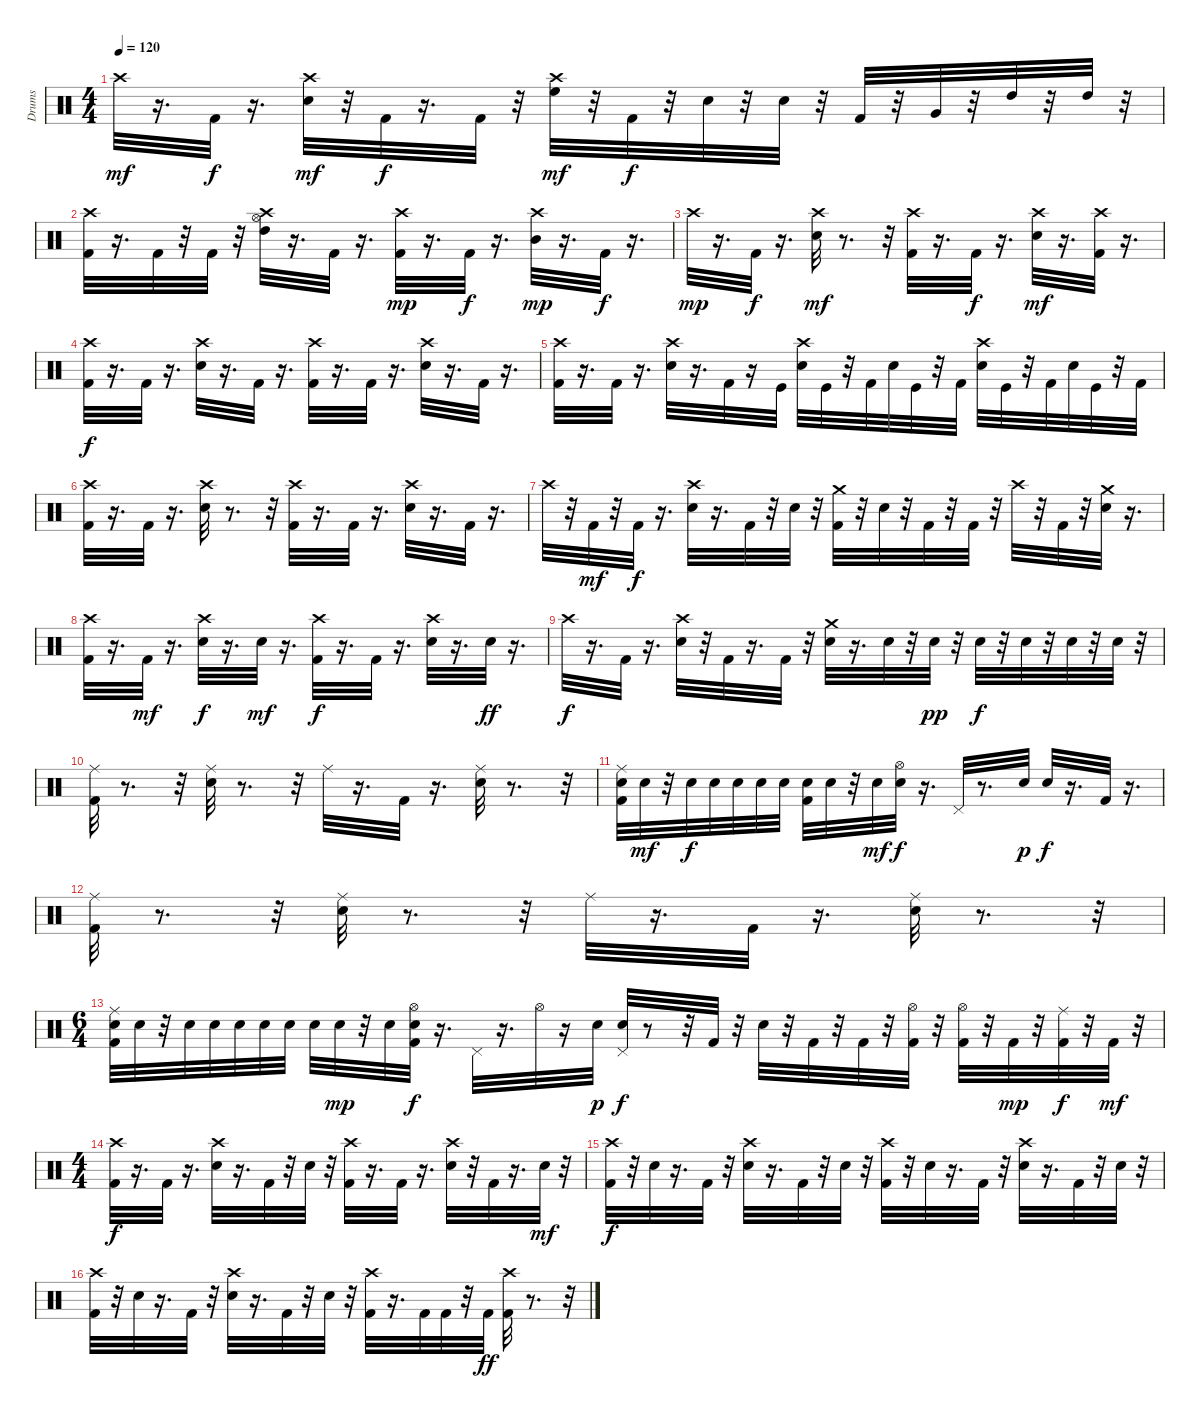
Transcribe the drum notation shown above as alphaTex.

\track ("Drums" "Drums") {instrument percussion}
\staff {score}
\articulation defaults
\ts (4 4)
\tempo 120
\clef neutral
\ks c "Crash high (hit)".32{dy mf}
r.16{d} "Kick (hit) 2".32{dy f} r.16{d} ("Snare (hit) 2" "Crash high (hit)").32{dy mf} r.32 "Kick (hit) 2".32{dy f} r.16{d} "Kick (hit) 2".32 r.32 ("High Floor Tom (hit)" "Crash high (hit)").32{dy mf} r.32 "Kick (hit) 2".32{dy f} r.32 "Snare (hit) 2".32 r.32 "Snare (hit) 2".32 r.32 "Kick (hit) 2".32 r.32 "Very Low Tom (hit)".32 r.32 "High Tom (hit)".32 r.32 "High Tom (hit)".32 r.32 |
("Crash high (hit)" "Kick (hit) 2").32 r.16{d} "Kick (hit) 2".32 r.32 "Kick (hit) 2".32 r.32 ("Crash high (hit)" "Hi-Hat (open)" "High Tom (hit)").32 r.16{d} "Kick (hit) 2".32 r.16{d} ("Crash high (hit)" "Kick (hit) 2").32{dy mp} r.16{d} "Kick (hit) 2".32{dy f} r.16{d} ("Crash high (hit)" "Mid Tom (hit)").32{dy mp} r.16{d} "Kick (hit) 2".32{dy f} r.16{d} |
"Crash high (hit)".32{dy mp} r.16{d} "Kick (hit) 2".32{dy f} r.16{d} ("Crash high (hit)" "Snare (hit) 2").32{dy mf} r.8{d} r.32 ("Crash high (hit)" "Kick (hit) 2").32 r.16{d} "Kick (hit) 2".32{dy f} r.16{d} ("Crash high (hit)" "Snare (hit) 2").32{dy mf} r.16{d} ("Crash high (hit)" "Kick (hit) 2").32 r.16{d} |
("Crash high (hit)" "Kick (hit) 2").32{dy f} r.16{d} "Kick (hit) 2".32 r.16{d} ("Crash high (hit)" "Snare (hit) 2").32 r.16{d} "Kick (hit) 2".32 r.16{d} ("Crash high (hit)" "Kick (hit) 2").32 r.16{d} "Kick (hit) 2".32 r.16{d} ("Crash high (hit)" "Snare (hit) 2").32 r.16{d} "Kick (hit) 2".32 r.16{d} |
("Crash high (hit)" "Kick (hit) 2").32 r.16{d} "Kick (hit) 2".32 r.16{d} ("Crash high (hit)" "Snare (hit) 2").32 r.16{d} "Kick (hit) 2".32 r.16 "Kick (hit)".32 ("Crash high (hit)" "Snare (hit) 2").32 "Kick (hit)".32 r.32 "Kick (hit) 2".32 "Snare (hit) 2".32 "Kick (hit)".32 r.32 "Kick (hit) 2".32 ("Crash high (hit)" "Snare (hit) 2").32 "Kick (hit)".32 r.32 "Kick (hit) 2".32 "Snare (hit) 2".32 "Kick (hit)".32 r.32 "Kick (hit) 2".32 |
("Crash high (hit)" "Kick (hit) 2").32 r.16{d} "Kick (hit) 2".32 r.16{d} ("Crash high (hit)" "Snare (hit) 2").32 r.8{d} r.32 ("Crash high (hit)" "Kick (hit) 2").32 r.16{d} "Kick (hit) 2".32 r.16{d} ("Crash high (hit)" "Snare (hit) 2").32 r.16{d} "Kick (hit) 2".32 r.16{d} |
"Crash high (hit)".32 r.32 "Kick (hit) 2".32{dy mf} r.32 "Kick (hit) 2".32{dy f} r.16{d} ("Crash high (hit)" "Snare (hit) 2").32 r.16{d} "Kick (hit) 2".32 r.32 "Snare (hit) 2".32 r.32 ("Crash medium (hit)" "Kick (hit) 2").32 r.32 "Snare (hit) 2".32 r.32 "Kick (hit) 2".32 r.32 "Kick (hit) 2".32 r.32 "Crash high (hit)".32 r.32 "Kick (hit) 2".32 r.32 ("Crash medium (hit)" "Snare (hit) 2").32 r.16{d} |
("Crash high (hit)" "Kick (hit) 2").32 r.16{d} "Kick (hit) 2".32{dy mf} r.16{d} ("Crash high (hit)" "Snare (hit) 2").32{dy f} r.16{d} "Snare (hit) 2".32{dy mf} r.16{d} ("Crash high (hit)" "Kick (hit) 2").32{dy f} r.16{d} "Kick (hit) 2".32 r.16{d} ("Crash high (hit)" "Snare (hit) 2").32 r.16{d} "Snare (hit) 2".32{dy ff} r.16{d} |
"Crash high (hit)".32{dy f} r.16{d} "Kick (hit) 2".32 r.16{d} ("Crash high (hit)" "Snare (hit) 2").32 r.32 "Kick (hit) 2".32 r.16{d} "Kick (hit) 2".32 r.32 ("Crash medium (hit)" "Snare (hit) 2").32 r.16{d} "Snare (hit) 2".32 r.32 "Snare (hit) 2".32{dy pp} r.32 "Snare (hit) 2".32{dy f} r.32 "Snare (hit) 2".32 r.32 "Snare (hit) 2".32 r.32 "Snare (hit) 2".32 r.32 |
("Ride (middle)" "Kick (hit) 2").32 r.8{d} r.32 ("Ride (middle)" "Snare (hit) 2").32 r.8{d} r.32 "Ride (middle)".32 r.16{d} "Kick (hit) 2".32 r.16{d} ("Ride (middle)" "Snare (hit) 2").32 r.8{d} r.32 |
("Ride (middle)" "Kick (hit) 2" "Snare (hit) 2").32 "Snare (hit) 2".32{dy mf} r.32 "Snare (hit) 2".32{dy f} "Snare (hit) 2".32 "Snare (hit) 2".32 "Snare (hit) 2".32 "Snare (hit) 2".32 ("Snare (hit) 2" "Kick (hit) 2").32 "Snare (hit) 2".32 r.32 "Snare (hit) 2".32{dy mf} ("Hi-Hat (open)" "Snare (hit) 2").32{dy f} r.16{d} "Pedal Hi-Hat (hit)".32 r.8{d} "Snare (hit) 2".32{dy p} "Snare (hit) 2".32{dy f} r.16{d} "Kick (hit) 2".32 r.16{d} |
("Ride (middle)" "Kick (hit) 2").32 r.8{d} r.32 ("Ride (middle)" "Snare (hit) 2").32 r.8{d} r.32 "Ride (middle)".32 r.16{d} "Kick (hit) 2".32 r.16{d} ("Ride (middle)" "Snare (hit) 2").32 r.8{d} r.32 |
\ts (6 4)
("Ride (middle)" "Kick (hit) 2" "Snare (hit) 2").32 "Snare (hit) 2".32 r.32 "Snare (hit) 2".32 "Snare (hit) 2".32 "Snare (hit) 2".32 "Snare (hit) 2".32 "Snare (hit) 2".32 "Snare (hit) 2".32 "Snare (hit) 2".32{dy mp} r.32 "Snare (hit) 2".32 ("Kick (hit) 2" "Hi-Hat (open)" "Snare (hit) 2").32{dy f} r.16{d} "Pedal Hi-Hat (hit)".32 r.16{d} "Hi-Hat (open)".32 r.16 "Snare (hit) 2".32{dy p} ("Pedal Hi-Hat (hit)" "Snare (hit) 2").32{dy f} r.8 r.32 "Kick (hit) 2".32 r.32 "Snare (hit) 2".32 r.32 "Kick (hit) 2".32 r.32 "Kick (hit) 2".32 r.32 ("Kick (hit) 2" "Hi-Hat (open)").32 r.32 ("Hi-Hat (open)" "Kick (hit) 2").32 r.32 "Kick (hit) 2".32{dy mp} r.32 ("Ride (middle)" "Kick (hit) 2").32{dy f} r.32 "Kick (hit) 2".32{dy mf} r.32 |
\ts (4 4)
("Crash high (hit)" "Kick (hit) 2").32{dy f} r.16{d} "Kick (hit) 2".32 r.16{d} ("Crash high (hit)" "Snare (hit) 2").32 r.16{d} "Kick (hit) 2".32 r.32 "Snare (hit) 2".32 r.32 ("Crash high (hit)" "Kick (hit) 2").32 r.16{d} "Kick (hit) 2".32 r.16{d} ("Crash high (hit)" "Snare (hit) 2").32 r.32 "Kick (hit) 2".32 r.16{d} "Snare (hit) 2".32{dy mf} r.32 |
("Crash high (hit)" "Kick (hit) 2").32{dy f} r.32 "Snare (hit) 2".32 r.16{d} "Kick (hit) 2".32 r.32 ("Crash high (hit)" "Snare (hit) 2").32 r.16{d} "Kick (hit) 2".32 r.32 "Snare (hit) 2".32 r.32 ("Crash high (hit)" "Kick (hit) 2").32 r.32 "Snare (hit) 2".32 r.16{d} "Kick (hit) 2".32 r.32 ("Crash high (hit)" "Snare (hit) 2").32 r.16{d} "Kick (hit) 2".32 r.32 "Snare (hit) 2".32 r.32 |
("Crash high (hit)" "Kick (hit) 2").32 r.32 "Snare (hit) 2".32 r.16{d} "Kick (hit) 2".32 r.32 ("Crash high (hit)" "Snare (hit) 2").32 r.16{d} "Kick (hit) 2".32 r.32 "Snare (hit) 2".32 r.32 ("Crash high (hit)" "Kick (hit) 2").32 r.16{d} "Kick (hit) 2".32 "Kick (hit) 2".32 r.32 "Kick (hit) 2".32{dy ff} ("Kick (hit) 2" "Crash high (hit)").32 r.8{d} r.32
